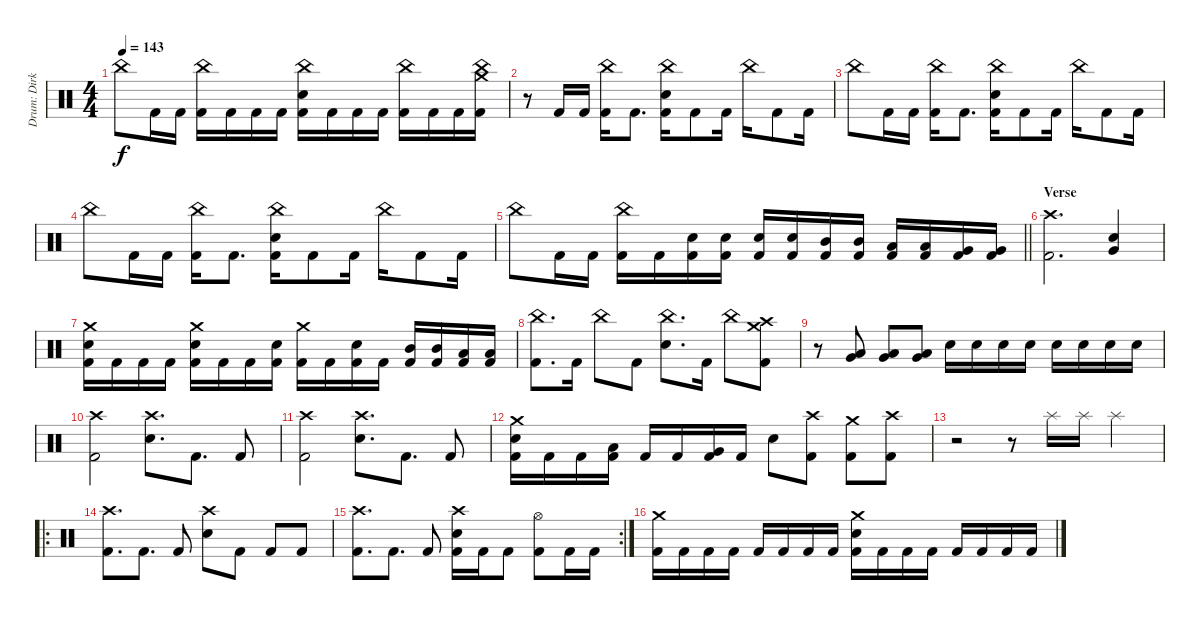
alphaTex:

\track ("Drum: Dirk" "Drum: Dirk") {instrument percussion}
\staff {score}
\articulation defaults
\ts (4 4)
\tempo 143
\clef neutral
\ks c "China (hit)".8{dy f} "Kick (hit) 2".16 "Kick (hit) 2".16
("China (hit)" "Kick (hit) 2").16 "Kick (hit) 2".16 "Kick (hit) 2".16 "Kick (hit) 2".16 ("China (hit)" "Electric Snare (hit)" "Kick (hit) 2").16 "Kick (hit) 2".16 "Kick (hit) 2".16 "Kick (hit) 2".16 ("China (hit)" "Kick (hit) 2").16 "Kick (hit) 2".16 "Kick (hit) 2".16 ("China (hit)" "Crash medium (hit)" "Kick (hit) 2").16 |
r.8 "Kick (hit) 2".16 "Kick (hit) 2".16 ("China (hit)" "Kick (hit) 2").16 "Kick (hit) 2".8{d} ("China (hit)" "Electric Snare (hit)" "Kick (hit) 2").16 "Kick (hit) 2".8 "Kick (hit) 2".16 "China (hit)".16 "Kick (hit) 2".8 "Kick (hit) 2".16 |
"China (hit)".8 "Kick (hit) 2".16 "Kick (hit) 2".16 ("China (hit)" "Kick (hit) 2").16 "Kick (hit) 2".8{d} ("China (hit)" "Electric Snare (hit)" "Kick (hit) 2").16 "Kick (hit) 2".8 "Kick (hit) 2".16 "China (hit)".16 "Kick (hit) 2".8 "Kick (hit) 2".16 |
"China (hit)".8 "Kick (hit) 2".16 "Kick (hit) 2".16 ("China (hit)" "Kick (hit) 2").16 "Kick (hit) 2".8{d} ("China (hit)" "Electric Snare (hit)" "Kick (hit) 2").16 "Kick (hit) 2".8 "Kick (hit) 2".16 "China (hit)".16 "Kick (hit) 2".8 "Kick (hit) 2".16 |
\barLineRight lightlight "China (hit)".8 "Kick (hit) 2".16 "Kick (hit) 2".16
("China (hit)" "Kick (hit) 2").16 "Kick (hit) 2".16 ("Electric Snare (hit)" "Kick (hit) 2").16 ("Electric Snare (hit)" "Kick (hit) 2").16 ("Electric Snare (hit)" "Kick (hit) 2").16 ("Electric Snare (hit)" "Kick (hit) 2").16 ("Mid Tom (hit)" "Kick (hit) 2").16 ("Mid Tom (hit)" "Kick (hit) 2").16 ("Low Tom (hit)" "Kick (hit) 2").16 ("Low Tom (hit)" "Kick (hit) 2").16 ("Very Low Tom (hit)" "Kick (hit) 2").16 ("Very Low Tom (hit)" "Kick (hit) 2").16 |
\section ("" "Verse")
("Crash high (hit)" "Kick (hit) 2").2{d} ("Electric Snare (hit)" "Very Low Tom (hit)").4 |
("Crash medium (hit)" "Electric Snare (hit)" "Kick (hit) 2").16 "Kick (hit) 2".16 "Kick (hit) 2".16 "Kick (hit) 2".16 ("Crash medium (hit)" "Electric Snare (hit)" "Kick (hit) 2").16 "Kick (hit) 2".16 "Kick (hit) 2".16 ("Electric Snare (hit)" "Kick (hit) 2").16 ("Crash medium (hit)" "Kick (hit) 2").16 "Kick (hit) 2".16 ("Electric Snare (hit)" "Kick (hit) 2").16 "Kick (hit) 2".16 ("Mid Tom (hit)" "Kick (hit) 2").16 ("Mid Tom (hit)" "Kick (hit) 2").16 ("Low Tom (hit)" "Kick (hit) 2").16 ("Low Tom (hit)" "Kick (hit) 2").16 |
("China (hit)" "Kick (hit) 2").8{d} "Kick (hit) 2".16 "China (hit)".8 "Kick (hit) 2".8 ("China (hit)" "Electric Snare (hit)").8{d} "Kick (hit) 2".16 "China (hit)".8 ("Crash high (hit)" "Crash medium (hit)" "Kick (hit) 2").8 |
r.8 ("Low Tom (hit)" "Very Low Tom (hit)").8 ("Low Tom (hit)" "Very Low Tom (hit)").8 ("Low Tom (hit)" "Very Low Tom (hit)").8 "Electric Snare (hit)".16 "Electric Snare (hit)".16 "Electric Snare (hit)".16 "Electric Snare (hit)".16 "Electric Snare (hit)".16 "Electric Snare (hit)".16 "Electric Snare (hit)".16 "Electric Snare (hit)".16 |
("Crash high (hit)" "Kick (hit) 2").2 ("Crash high (hit)" "Electric Snare (hit)").8{d} "Kick (hit) 2".8{d} "Kick (hit) 2".8 |
("Crash high (hit)" "Kick (hit) 2").2 ("Crash high (hit)" "Electric Snare (hit)").8{d} "Kick (hit) 2".8{d} "Kick (hit) 2".8 |
("Crash medium (hit)" "Electric Snare (hit)" "Kick (hit) 2").16 "Kick (hit) 2".16 "Kick (hit) 2".16 ("Low Tom (hit)" "Kick (hit) 2").16 "Kick (hit) 2".16 "Kick (hit) 2".16 ("Very Low Tom (hit)" "Kick (hit) 2").16 "Kick (hit) 2".16 "Electric Snare (hit)".8 ("Crash high (hit)" "Kick (hit) 2").8 ("Crash medium (hit)" "Kick (hit) 2").8 ("Crash high (hit)" "Kick (hit) 2").8 |
r.2 r.8 "Splash (hit)".16 "Splash (hit)".16 "Splash (hit)".4 |
\ro
("Crash high (hit)" "Kick (hit) 2").8{d} "Kick (hit) 2".8{d} "Kick (hit) 2".8 ("Crash high (hit)" "Electric Snare (hit)").8 "Kick (hit) 2".8 "Kick (hit) 2".8 "Kick (hit) 2".8 |
\rc 2
("Crash high (hit)" "Kick (hit) 2").8{d} "Kick (hit) 2".8{d} "Kick (hit) 2".8 ("Crash high (hit)" "Electric Snare (hit)" "Kick (hit) 2").16 "Kick (hit) 2".16 "Kick (hit) 2".8 ("Hi-Hat (open)" "Kick (hit) 2").8 "Kick (hit) 2".16 "Kick (hit) 2".16 |
("Crash medium (hit)" "Kick (hit) 2").16 "Kick (hit) 2".16 "Kick (hit) 2".16 "Kick (hit) 2".16 "Kick (hit) 2".16 "Kick (hit) 2".16 "Kick (hit) 2".16 "Kick (hit) 2".16 ("Crash medium (hit)" "Electric Snare (hit)" "Kick (hit) 2").16 "Kick (hit) 2".16 "Kick (hit) 2".16 "Kick (hit) 2".16 "Kick (hit) 2".16 "Kick (hit) 2".16 "Kick (hit) 2".16 "Kick (hit) 2".16
